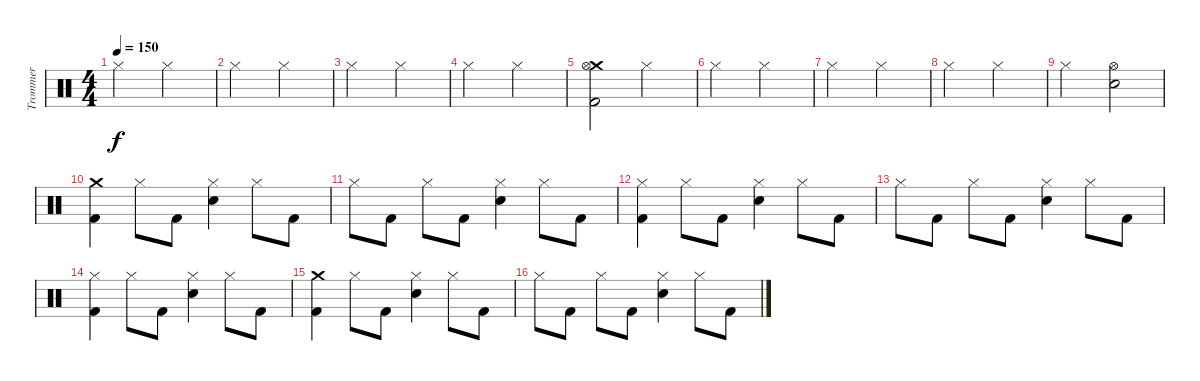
\track ("Trommer" "Trommer") {instrument percussion}
\staff {score}
\articulation defaults
\ts (4 4)
\tempo 150
\clef neutral
\ks c "Hi-Hat (closed)".2{dy f} "Hi-Hat (closed)".2
|
"Hi-Hat (closed)".2 "Hi-Hat (closed)".2 |
"Hi-Hat (closed)".2 "Hi-Hat (closed)".2 |
"Hi-Hat (closed)".2 "Hi-Hat (closed)".2 |
("Crash medium (hit)" "Hi-Hat (open)" "Kick (hit) 2").2 "Hi-Hat (closed)".2 |
"Hi-Hat (closed)".2 "Hi-Hat (closed)".2 |
"Hi-Hat (closed)".2 "Hi-Hat (closed)".2 |
"Hi-Hat (closed)".2 "Hi-Hat (closed)".2 |
"Hi-Hat (closed)".2 ("Hi-Hat (open)" "Snare (hit) 2").2 |
("Crash medium (hit)" "Kick (hit) 2").4 "Hi-Hat (closed)".8 "Kick (hit) 2".8 ("Hi-Hat (closed)" "Snare (hit) 2").4 "Hi-Hat (closed)".8 "Kick (hit) 2".8 |
"Hi-Hat (closed)".8 "Kick (hit) 2".8 "Hi-Hat (closed)".8 "Kick (hit) 2".8 ("Hi-Hat (closed)" "Snare (hit) 2").4 "Hi-Hat (closed)".8 "Kick (hit) 2".8 |
("Hi-Hat (closed)" "Kick (hit) 2").4 "Hi-Hat (closed)".8 "Kick (hit) 2".8 ("Hi-Hat (closed)" "Snare (hit) 2").4 "Hi-Hat (closed)".8 "Kick (hit) 2".8 |
"Hi-Hat (closed)".8 "Kick (hit) 2".8 "Hi-Hat (closed)".8 "Kick (hit) 2".8 ("Hi-Hat (closed)" "Snare (hit) 2").4 "Hi-Hat (closed)".8 "Kick (hit) 2".8 |
("Hi-Hat (closed)" "Kick (hit) 2").4 "Hi-Hat (closed)".8 "Kick (hit) 2".8 ("Hi-Hat (closed)" "Snare (hit) 2").4 "Hi-Hat (closed)".8 "Kick (hit) 2".8 |
("Crash medium (hit)" "Kick (hit) 2").4 "Hi-Hat (closed)".8 "Kick (hit) 2".8 ("Hi-Hat (closed)" "Snare (hit) 2").4 "Hi-Hat (closed)".8 "Kick (hit) 2".8 |
"Hi-Hat (closed)".8 "Kick (hit) 2".8 "Hi-Hat (closed)".8 "Kick (hit) 2".8 ("Hi-Hat (closed)" "Snare (hit) 2").4 "Hi-Hat (closed)".8 "Kick (hit) 2".8
